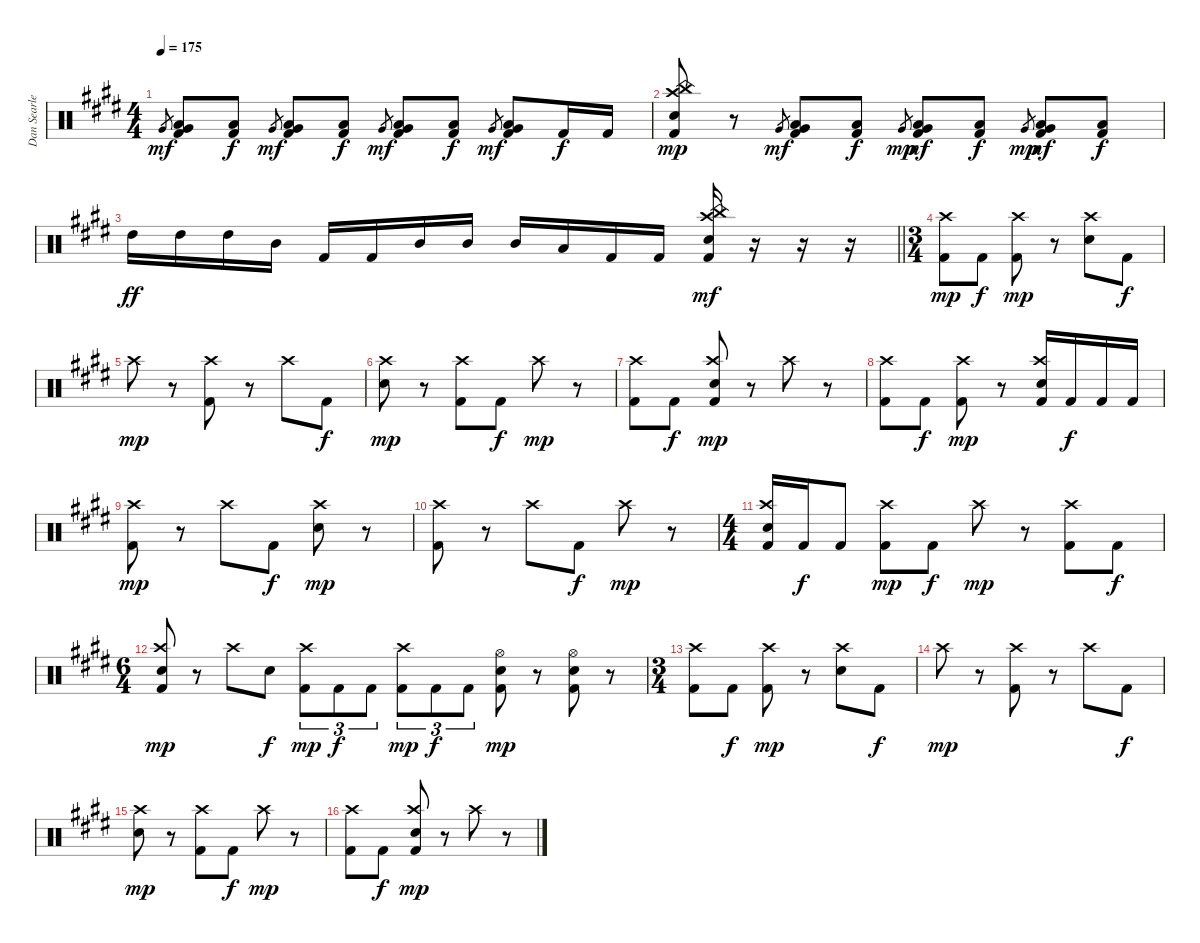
\track ("Dan Searle" "Dan Searle") {instrument percussion}
\staff {score}
\articulation defaults
\ts (4 4)
\tempo 175
\clef neutral
\ks e "Very Low Tom (hit)".8{gr dy mf}
("Very Low Tom (hit)" "Low Floor Tom (hit)" "Kick (hit) 2").8 ("Low Floor Tom (hit)" "Kick (hit) 2").8{dy f} "Very Low Tom (hit)".8{gr dy mf} ("Very Low Tom (hit)" "Low Floor Tom (hit)" "Kick (hit) 2").8 ("Low Floor Tom (hit)" "Kick (hit) 2").8{dy f} "Very Low Tom (hit)".8{gr dy mf} ("Very Low Tom (hit)" "Low Floor Tom (hit)" "Kick (hit) 2").8 ("Low Floor Tom (hit)" "Kick (hit) 2").8{dy f} "Very Low Tom (hit)".8{gr dy mf} ("Very Low Tom (hit)" "Low Floor Tom (hit)" "Kick (hit) 2").8 "Kick (hit) 2".16{dy f} "Kick (hit) 2".16 |
("Crash high (hit)" "China (hit)" "Electric Snare (hit)" "Kick (hit) 2").8{dy mp} r.8 "Very Low Tom (hit)".8{gr dy mf} ("Very Low Tom (hit)" "Low Floor Tom (hit)" "Kick (hit) 2").8 ("Low Floor Tom (hit)" "Kick (hit) 2").8{dy f} "Very Low Tom (hit)".8{gr dy mp} ("Very Low Tom (hit)" "Low Floor Tom (hit)" "Kick (hit) 2").8{dy mf} ("Low Floor Tom (hit)" "Kick (hit) 2").8{dy f} "Very Low Tom (hit)".8{gr dy mp} ("Very Low Tom (hit)" "Low Floor Tom (hit)" "Kick (hit) 2").8{dy mf} ("Low Floor Tom (hit)" "Kick (hit) 2").8{dy f} |
\barLineRight lightlight "High Tom (hit)".16{dy ff} "High Tom (hit)".16 "High Tom (hit)".16 "Mid Tom (hit)".16 "Kick (hit) 2".16 "Kick (hit) 2".16 "Mid Tom (hit)".16 "Mid Tom (hit)".16 "Mid Tom (hit)".16 "Low Tom (hit)".16 "Kick (hit) 2".16 "Kick (hit) 2".16
("Crash high (hit)" "China (hit)" "Electric Snare (hit)" "Kick (hit) 2").16{dy mf} r.16 r.16 r.16 |
\ts (3 4)
("Crash high (hit)" "Kick (hit) 2").8{dy mp} "Kick (hit) 2".8{dy f} ("Crash high (hit)" "Kick (hit) 2").8{dy mp} r.8 ("Crash high (hit)" "Electric Snare (hit)").8 "Kick (hit) 2".8{dy f} |
"Crash high (hit)".8{dy mp} r.8 ("Crash high (hit)" "Kick (hit) 2").8 r.8 "Crash high (hit)".8 "Kick (hit) 2".8{dy f} |
("Crash high (hit)" "Electric Snare (hit)").8{dy mp} r.8 ("Crash high (hit)" "Kick (hit) 2").8 "Kick (hit) 2".8{dy f} "Crash high (hit)".8{dy mp} r.8 |
("Crash high (hit)" "Kick (hit) 2").8 "Kick (hit) 2".8{dy f} ("Crash high (hit)" "Electric Snare (hit)" "Kick (hit) 2").8{dy mp} r.8 "Crash high (hit)".8 r.8 |
("Crash high (hit)" "Kick (hit) 2").8 "Kick (hit) 2".8{dy f} ("Crash high (hit)" "Kick (hit) 2").8{dy mp} r.8 ("Crash high (hit)" "Electric Snare (hit)" "Kick (hit) 2").16 "Kick (hit) 2".16{dy f} "Kick (hit) 2".16 "Kick (hit) 2".16 |
("Crash high (hit)" "Kick (hit) 2").8{dy mp} r.8 "Crash high (hit)".8 "Kick (hit) 2".8{dy f} ("Crash high (hit)" "Electric Snare (hit)").8{dy mp} r.8 |
("Crash high (hit)" "Kick (hit) 2").8 r.8 "Crash high (hit)".8 "Kick (hit) 2".8{dy f} "Crash high (hit)".8{dy mp} r.8 |
\ts (4 4)
("Crash high (hit)" "Electric Snare (hit)" "Kick (hit) 2").16 "Kick (hit) 2".16{dy f} "Kick (hit) 2".8 ("Crash high (hit)" "Kick (hit) 2").8{dy mp} "Kick (hit) 2".8{dy f} "Crash high (hit)".8{dy mp} r.8 ("Crash high (hit)" "Kick (hit) 2").8 "Kick (hit) 2".8{dy f} |
\ts (6 4)
("Crash high (hit)" "Electric Snare (hit)" "Kick (hit) 2").8{dy mp} r.8 "Crash high (hit)".8 "Electric Snare (hit)".8{dy f} ("Crash high (hit)" "Kick (hit) 2").8{tu (3 2) dy mp} "Kick (hit) 2".8{tu (3 2) dy f} "Kick (hit) 2".8{tu (3 2)} ("Crash high (hit)" "Kick (hit) 2").8{tu (3 2) dy mp} "Kick (hit) 2".8{tu (3 2) dy f} "Kick (hit) 2".8{tu (3 2)} ("Hi-Hat (open)" "Electric Snare (hit)" "Kick (hit) 2").8{dy mp} r.8 ("Hi-Hat (open)" "Electric Snare (hit)" "Kick (hit) 2").8 r.8 |
\ts (3 4)
("Crash high (hit)" "Kick (hit) 2").8 "Kick (hit) 2".8{dy f} ("Crash high (hit)" "Kick (hit) 2").8{dy mp} r.8 ("Crash high (hit)" "Electric Snare (hit)").8 "Kick (hit) 2".8{dy f} |
"Crash high (hit)".8{dy mp} r.8 ("Crash high (hit)" "Kick (hit) 2").8 r.8 "Crash high (hit)".8 "Kick (hit) 2".8{dy f} |
("Crash high (hit)" "Electric Snare (hit)").8{dy mp} r.8 ("Crash high (hit)" "Kick (hit) 2").8 "Kick (hit) 2".8{dy f} "Crash high (hit)".8{dy mp} r.8 |
("Crash high (hit)" "Kick (hit) 2").8 "Kick (hit) 2".8{dy f} ("Crash high (hit)" "Electric Snare (hit)" "Kick (hit) 2").8{dy mp} r.8 "Crash high (hit)".8 r.8
